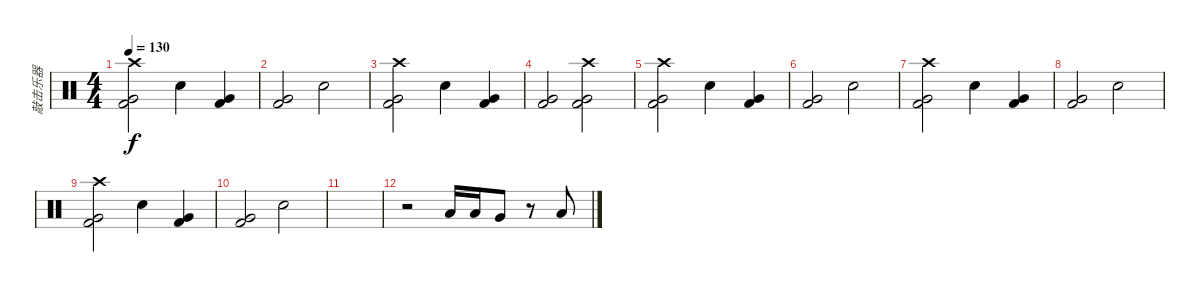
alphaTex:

\track ("敲击乐器" "敲击乐器") {instrument percussion}
\staff {score}
\articulation defaults
\ts (4 4)
\tempo 130
\clef neutral
\ks c
("Very Low Tom (hit)" "Kick (hit) 2" "Crash high (hit)").2{dy f} "Electric Snare (hit)".4 ("Very Low Tom (hit)" "Kick (hit) 2").4 |
("Very Low Tom (hit)" "Kick (hit) 2").2 "Electric Snare (hit)".2 |
("Very Low Tom (hit)" "Kick (hit) 2" "Crash high (hit)").2 "Electric Snare (hit)".4 ("Very Low Tom (hit)" "Kick (hit) 2").4 |
("Very Low Tom (hit)" "Kick (hit) 2").2 ("Crash high (hit)" "Very Low Tom (hit)" "Kick (hit) 2").2 |
("Very Low Tom (hit)" "Kick (hit) 2" "Crash high (hit)").2 "Electric Snare (hit)".4 ("Very Low Tom (hit)" "Kick (hit) 2").4 |
("Very Low Tom (hit)" "Kick (hit) 2").2 "Electric Snare (hit)".2 |
("Very Low Tom (hit)" "Kick (hit) 2" "Crash high (hit)").2 "Electric Snare (hit)".4 ("Very Low Tom (hit)" "Kick (hit) 2").4 |
("Very Low Tom (hit)" "Kick (hit) 2").2 "Electric Snare (hit)".2 |
("Very Low Tom (hit)" "Kick (hit) 2" "Crash high (hit)").2 "Electric Snare (hit)".4 ("Very Low Tom (hit)" "Kick (hit) 2").4 |
("Very Low Tom (hit)" "Kick (hit) 2").2 "Electric Snare (hit)".2 |
|
r.2 "Low Tom (hit)".16 "Low Tom (hit)".16 "Very Low Tom (hit)".8 r.8 "Low Tom (hit)".8
